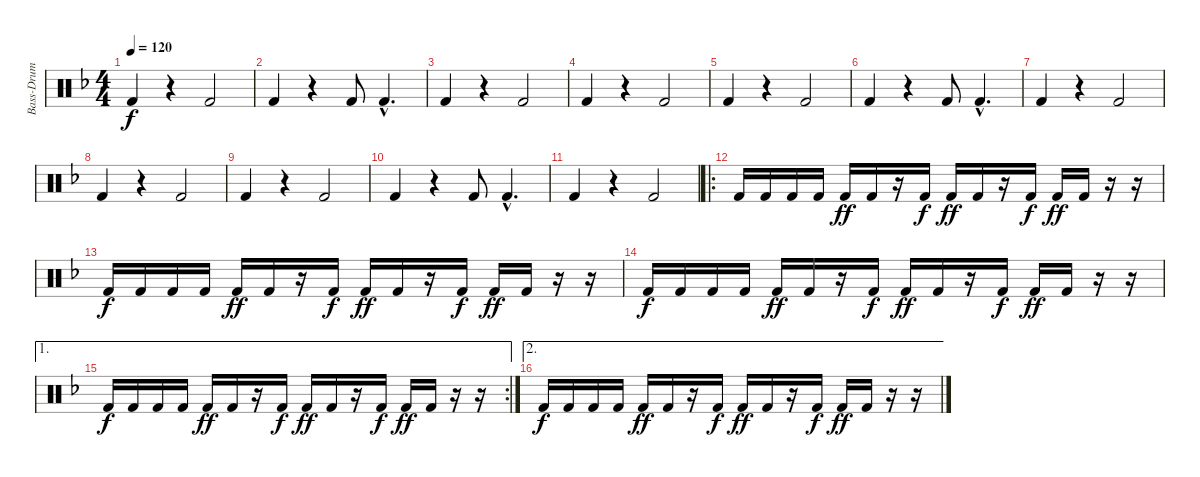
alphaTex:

\track ("Bass-Drum" "Bass-Drum") {instrument percussion}
\staff {score}
\articulation defaults
\ts (4 4)
\tempo 120
\clef neutral
\ks f "Kick (hit) 2".4{dy f}
r.4 "Kick (hit) 2".2 |
"Kick (hit) 2".4 r.4 "Kick (hit) 2".8 "Kick (hit) 2"{hac}.4{d} |
"Kick (hit) 2".4 r.4 "Kick (hit) 2".2 |
"Kick (hit) 2".4 r.4 "Kick (hit) 2".2 |
"Kick (hit) 2".4 r.4 "Kick (hit) 2".2 |
"Kick (hit) 2".4 r.4 "Kick (hit) 2".8 "Kick (hit) 2"{hac}.4{d} |
"Kick (hit) 2".4 r.4 "Kick (hit) 2".2 |
"Kick (hit) 2".4 r.4 "Kick (hit) 2".2 |
"Kick (hit) 2".4 r.4 "Kick (hit) 2".2 |
"Kick (hit) 2".4 r.4 "Kick (hit) 2".8 "Kick (hit) 2"{hac}.4{d} |
"Kick (hit) 2".4 r.4 "Kick (hit) 2".2 |
\ro "Kick (hit) 2".16 "Kick (hit) 2".16 "Kick (hit) 2".16 "Kick (hit) 2".16 "Kick (hit) 2".16{dy ff} "Kick (hit) 2".16
r.16 "Kick (hit) 2".16{dy f} "Kick (hit) 2".16{dy ff} "Kick (hit) 2".16 r.16 "Kick (hit) 2".16{dy f} "Kick (hit) 2".16{dy ff} "Kick (hit) 2".16 r.16 r.16 |
"Kick (hit) 2".16{dy f} "Kick (hit) 2".16 "Kick (hit) 2".16 "Kick (hit) 2".16 "Kick (hit) 2".16{dy ff} "Kick (hit) 2".16 r.16 "Kick (hit) 2".16{dy f} "Kick (hit) 2".16{dy ff} "Kick (hit) 2".16 r.16 "Kick (hit) 2".16{dy f} "Kick (hit) 2".16{dy ff} "Kick (hit) 2".16 r.16 r.16 |
"Kick (hit) 2".16{dy f} "Kick (hit) 2".16 "Kick (hit) 2".16 "Kick (hit) 2".16 "Kick (hit) 2".16{dy ff} "Kick (hit) 2".16 r.16 "Kick (hit) 2".16{dy f} "Kick (hit) 2".16{dy ff} "Kick (hit) 2".16 r.16 "Kick (hit) 2".16{dy f} "Kick (hit) 2".16{dy ff} "Kick (hit) 2".16 r.16 r.16 |
\ae 1
\rc 2 "Kick (hit) 2".16{dy f} "Kick (hit) 2".16 "Kick (hit) 2".16 "Kick (hit) 2".16 "Kick (hit) 2".16{dy ff} "Kick (hit) 2".16
r.16 "Kick (hit) 2".16{dy f} "Kick (hit) 2".16{dy ff} "Kick (hit) 2".16 r.16 "Kick (hit) 2".16{dy f} "Kick (hit) 2".16{dy ff} "Kick (hit) 2".16 r.16 r.16 |
\ae 2 "Kick (hit) 2".16{dy f} "Kick (hit) 2".16 "Kick (hit) 2".16 "Kick (hit) 2".16 "Kick (hit) 2".16{dy ff} "Kick (hit) 2".16
r.16 "Kick (hit) 2".16{dy f} "Kick (hit) 2".16{dy ff} "Kick (hit) 2".16 r.16 "Kick (hit) 2".16{dy f} "Kick (hit) 2".16{dy ff} "Kick (hit) 2".16 r.16 r.16
